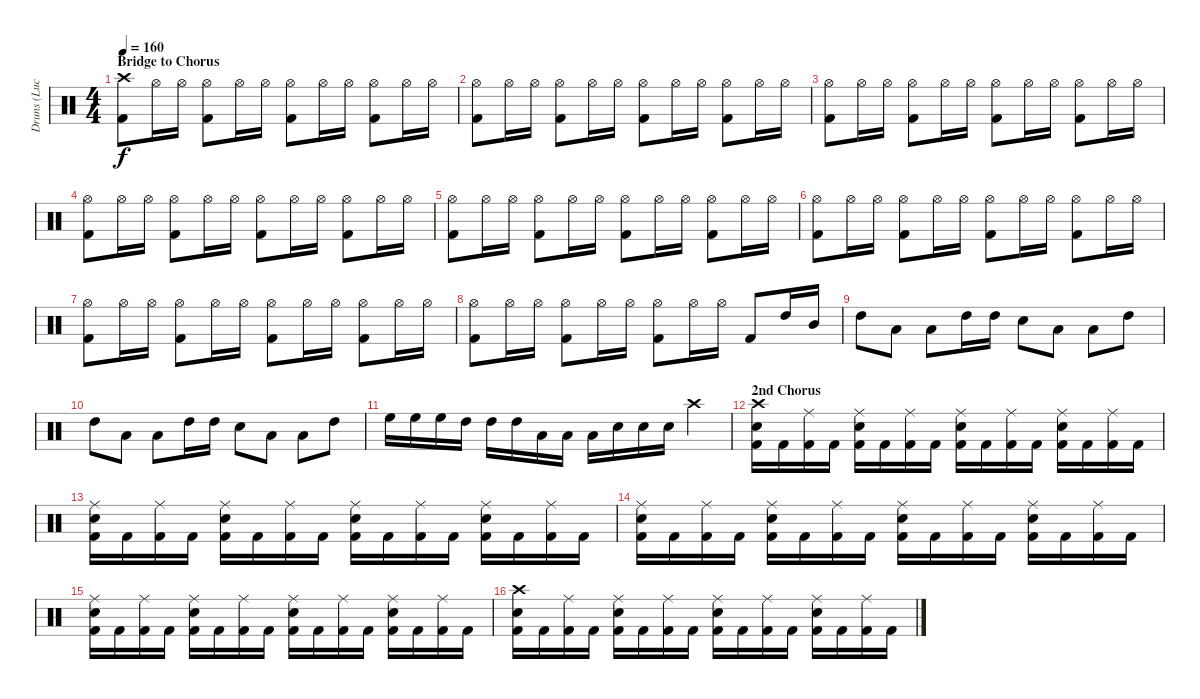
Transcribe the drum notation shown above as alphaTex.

\track ("Druns (Lucas Zigarti)" "Druns (Luc") {instrument percussion}
\staff {score}
\articulation defaults
\ts (4 4)
\section ("" "Bridge to Chorus")
\tempo 160
\clef neutral
\ks c
("Crash high (hit)" "Kick (hit) 2").8{dy f} "Hi-Hat (open)".16 "Hi-Hat (open)".16 ("Hi-Hat (open)" "Kick (hit) 2").8 "Hi-Hat (open)".16 "Hi-Hat (open)".16 ("Hi-Hat (open)" "Kick (hit) 2").8 "Hi-Hat (open)".16 "Hi-Hat (open)".16 ("Hi-Hat (open)" "Kick (hit) 2").8 "Hi-Hat (open)".16 "Hi-Hat (open)".16 |
("Hi-Hat (open)" "Kick (hit) 2").8 "Hi-Hat (open)".16 "Hi-Hat (open)".16 ("Hi-Hat (open)" "Kick (hit) 2").8 "Hi-Hat (open)".16 "Hi-Hat (open)".16 ("Hi-Hat (open)" "Kick (hit) 2").8 "Hi-Hat (open)".16 "Hi-Hat (open)".16 ("Hi-Hat (open)" "Kick (hit) 2").8 "Hi-Hat (open)".16 "Hi-Hat (open)".16 |
("Hi-Hat (open)" "Kick (hit) 2").8 "Hi-Hat (open)".16 "Hi-Hat (open)".16 ("Hi-Hat (open)" "Kick (hit) 2").8 "Hi-Hat (open)".16 "Hi-Hat (open)".16 ("Hi-Hat (open)" "Kick (hit) 2").8 "Hi-Hat (open)".16 "Hi-Hat (open)".16 ("Hi-Hat (open)" "Kick (hit) 2").8 "Hi-Hat (open)".16 "Hi-Hat (open)".16 |
("Hi-Hat (open)" "Kick (hit) 2").8 "Hi-Hat (open)".16 "Hi-Hat (open)".16 ("Hi-Hat (open)" "Kick (hit) 2").8 "Hi-Hat (open)".16 "Hi-Hat (open)".16 ("Hi-Hat (open)" "Kick (hit) 2").8 "Hi-Hat (open)".16 "Hi-Hat (open)".16 ("Hi-Hat (open)" "Kick (hit) 2").8 "Hi-Hat (open)".16 "Hi-Hat (open)".16 |
("Hi-Hat (open)" "Kick (hit) 2").8 "Hi-Hat (open)".16 "Hi-Hat (open)".16 ("Hi-Hat (open)" "Kick (hit) 2").8 "Hi-Hat (open)".16 "Hi-Hat (open)".16 ("Hi-Hat (open)" "Kick (hit) 2").8 "Hi-Hat (open)".16 "Hi-Hat (open)".16 ("Hi-Hat (open)" "Kick (hit) 2").8 "Hi-Hat (open)".16 "Hi-Hat (open)".16 |
("Hi-Hat (open)" "Kick (hit) 2").8 "Hi-Hat (open)".16 "Hi-Hat (open)".16 ("Hi-Hat (open)" "Kick (hit) 2").8 "Hi-Hat (open)".16 "Hi-Hat (open)".16 ("Hi-Hat (open)" "Kick (hit) 2").8 "Hi-Hat (open)".16 "Hi-Hat (open)".16 ("Hi-Hat (open)" "Kick (hit) 2").8 "Hi-Hat (open)".16 "Hi-Hat (open)".16 |
("Hi-Hat (open)" "Kick (hit) 2").8 "Hi-Hat (open)".16 "Hi-Hat (open)".16 ("Hi-Hat (open)" "Kick (hit) 2").8 "Hi-Hat (open)".16 "Hi-Hat (open)".16 ("Hi-Hat (open)" "Kick (hit) 2").8 "Hi-Hat (open)".16 "Hi-Hat (open)".16 ("Hi-Hat (open)" "Kick (hit) 2").8 "Hi-Hat (open)".16 "Hi-Hat (open)".16 |
("Hi-Hat (open)" "Kick (hit) 2").8 "Hi-Hat (open)".16 "Hi-Hat (open)".16 ("Hi-Hat (open)" "Kick (hit) 2").8 "Hi-Hat (open)".16 "Hi-Hat (open)".16 ("Hi-Hat (open)" "Kick (hit) 2").8 "Hi-Hat (open)".16 "Hi-Hat (open)".16 "Kick (hit) 2".8 "High Tom (hit)".16 "Mid Tom (hit)".16 |
"High Tom (hit)".8 "Low Tom (hit)".8 "Low Tom (hit)".8 "High Tom (hit)".16 "High Tom (hit)".16 "Electric Snare (hit)".8 "Low Tom (hit)".8 "Low Tom (hit)".8 "High Tom (hit)".8 |
"High Tom (hit)".8 "Low Tom (hit)".8 "Low Tom (hit)".8 "High Tom (hit)".16 "High Tom (hit)".16 "Electric Snare (hit)".8 "Low Tom (hit)".8 "Low Tom (hit)".8 "High Tom (hit)".8 |
"High Floor Tom (hit)".16 "High Floor Tom (hit)".16 "High Floor Tom (hit)".16 "High Tom (hit)".16 "High Tom (hit)".16 "High Tom (hit)".16 "Low Tom (hit)".16 "Low Tom (hit)".16 "Low Tom (hit)".16 "Electric Snare (hit)".16 "Electric Snare (hit)".16 "Electric Snare (hit)".16 "Crash high (hit)".4 |
\section ("" "2nd Chorus")
("Electric Snare (hit)" "Crash high (hit)" "Kick (hit) 2").16 "Kick (hit) 2".16 ("Ride (middle)" "Kick (hit) 2").16 "Kick (hit) 2".16 ("Electric Snare (hit)" "Ride (middle)" "Kick (hit) 2").16 "Kick (hit) 2".16 ("Ride (middle)" "Kick (hit) 2").16 "Kick (hit) 2".16 ("Electric Snare (hit)" "Ride (middle)" "Kick (hit) 2").16 "Kick (hit) 2".16 ("Ride (middle)" "Kick (hit) 2").16 "Kick (hit) 2".16 ("Electric Snare (hit)" "Ride (middle)" "Kick (hit) 2").16 "Kick (hit) 2".16 ("Ride (middle)" "Kick (hit) 2").16 "Kick (hit) 2".16 |
("Electric Snare (hit)" "Ride (middle)" "Kick (hit) 2").16 "Kick (hit) 2".16 ("Ride (middle)" "Kick (hit) 2").16 "Kick (hit) 2".16 ("Electric Snare (hit)" "Ride (middle)" "Kick (hit) 2").16 "Kick (hit) 2".16 ("Ride (middle)" "Kick (hit) 2").16 "Kick (hit) 2".16 ("Electric Snare (hit)" "Ride (middle)" "Kick (hit) 2").16 "Kick (hit) 2".16 ("Ride (middle)" "Kick (hit) 2").16 "Kick (hit) 2".16 ("Electric Snare (hit)" "Ride (middle)" "Kick (hit) 2").16 "Kick (hit) 2".16 ("Ride (middle)" "Kick (hit) 2").16 "Kick (hit) 2".16 |
("Electric Snare (hit)" "Ride (middle)" "Kick (hit) 2").16 "Kick (hit) 2".16 ("Ride (middle)" "Kick (hit) 2").16 "Kick (hit) 2".16 ("Electric Snare (hit)" "Ride (middle)" "Kick (hit) 2").16 "Kick (hit) 2".16 ("Ride (middle)" "Kick (hit) 2").16 "Kick (hit) 2".16 ("Electric Snare (hit)" "Ride (middle)" "Kick (hit) 2").16 "Kick (hit) 2".16 ("Ride (middle)" "Kick (hit) 2").16 "Kick (hit) 2".16 ("Electric Snare (hit)" "Ride (middle)" "Kick (hit) 2").16 "Kick (hit) 2".16 ("Ride (middle)" "Kick (hit) 2").16 "Kick (hit) 2".16 |
("Electric Snare (hit)" "Ride (middle)" "Kick (hit) 2").16 "Kick (hit) 2".16 ("Ride (middle)" "Kick (hit) 2").16 "Kick (hit) 2".16 ("Electric Snare (hit)" "Ride (middle)" "Kick (hit) 2").16 "Kick (hit) 2".16 ("Ride (middle)" "Kick (hit) 2").16 "Kick (hit) 2".16 ("Electric Snare (hit)" "Ride (middle)" "Kick (hit) 2").16 "Kick (hit) 2".16 ("Ride (middle)" "Kick (hit) 2").16 "Kick (hit) 2".16 ("Electric Snare (hit)" "Ride (middle)" "Kick (hit) 2").16 "Kick (hit) 2".16 ("Ride (middle)" "Kick (hit) 2").16 "Kick (hit) 2".16 |
("Electric Snare (hit)" "Crash high (hit)" "Kick (hit) 2").16 "Kick (hit) 2".16 ("Ride (middle)" "Kick (hit) 2").16 "Kick (hit) 2".16 ("Electric Snare (hit)" "Ride (middle)" "Kick (hit) 2").16 "Kick (hit) 2".16 ("Ride (middle)" "Kick (hit) 2").16 "Kick (hit) 2".16 ("Electric Snare (hit)" "Ride (middle)" "Kick (hit) 2").16 "Kick (hit) 2".16 ("Ride (middle)" "Kick (hit) 2").16 "Kick (hit) 2".16 ("Electric Snare (hit)" "Ride (middle)" "Kick (hit) 2").16 "Kick (hit) 2".16 ("Ride (middle)" "Kick (hit) 2").16 "Kick (hit) 2".16
